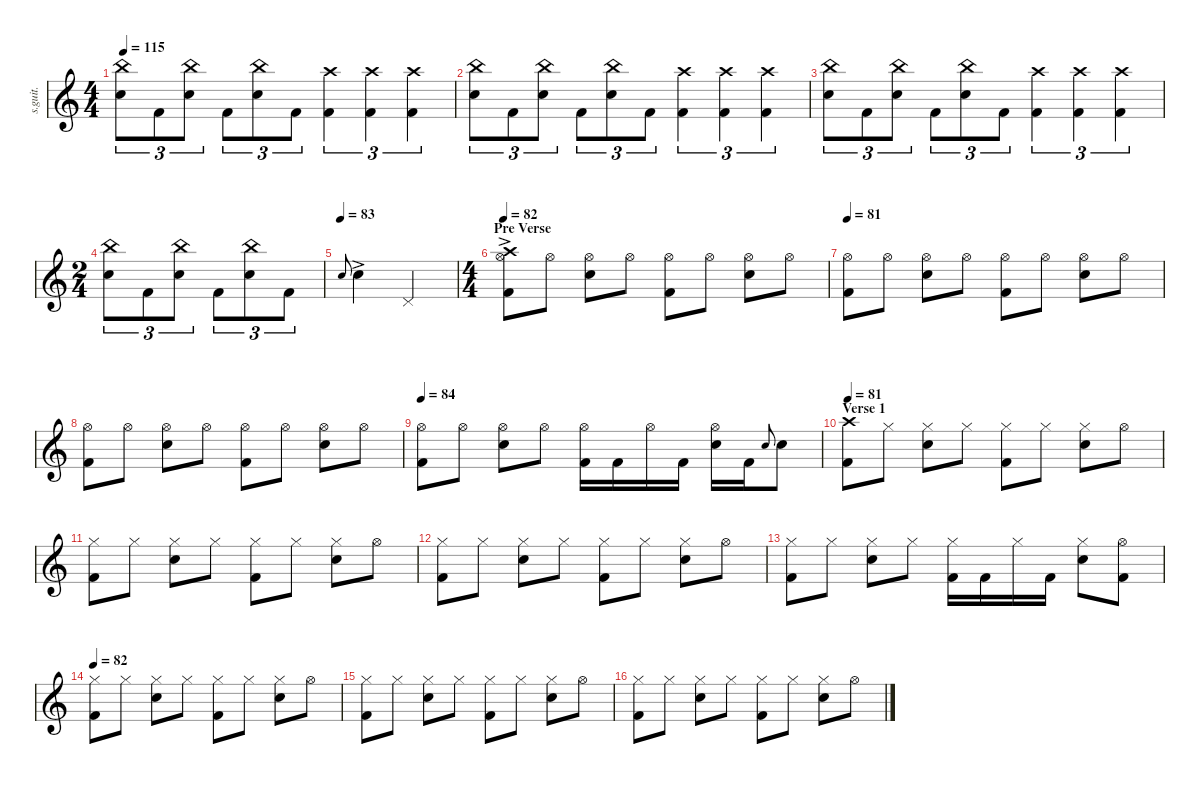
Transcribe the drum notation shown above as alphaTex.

\defaultSystemsLayout 4
\hideDynamics
\bracketExtendMode nobrackets
\track ("Brad Wilk - Drums" "s.guit.") {instrument percussion}
\staff {score}
\articulation defaults
\ts (4 4)
\tempo 115
\clef g2
\ks c
("Snare (hit) 2" "China (hit)").8{tu (3 2) lyrics (0 "") lyrics (1 "") lyrics (2 "") lyrics (3 "") lyrics (4 "") dy fff} "Kick (hit) 2".8{tu (3 2) lyrics (0 "") lyrics (1 "") lyrics (2 "") lyrics (3 "") lyrics (4 "")} ("Snare (hit) 2" "China (hit)").8{tu (3 2) lyrics (0 "") lyrics (1 "") lyrics (2 "") lyrics (3 "") lyrics (4 "")} "Kick (hit) 2".8{tu (3 2) lyrics (0 "") lyrics (1 "") lyrics (2 "") lyrics (3 "") lyrics (4 "")} ("Snare (hit) 2" "China (hit)").8{tu (3 2) lyrics (0 "") lyrics (1 "") lyrics (2 "") lyrics (3 "") lyrics (4 "")} "Kick (hit) 2".8{tu (3 2) lyrics (0 "") lyrics (1 "") lyrics (2 "") lyrics (3 "") lyrics (4 "")} ("Crash high (hit)" "Kick (hit) 2").4{tu (3 2) lyrics (0 "") lyrics (1 "") lyrics (2 "") lyrics (3 "") lyrics (4 "")} ("Crash high (hit)" "Kick (hit) 2").4{tu (3 2) lyrics (0 "") lyrics (1 "") lyrics (2 "") lyrics (3 "") lyrics (4 "")} ("Crash high (hit)" "Kick (hit) 2").4{tu (3 2) lyrics (0 "") lyrics (1 "") lyrics (2 "") lyrics (3 "") lyrics (4 "")} |
("Snare (hit) 2" "China (hit)").8{tu (3 2) lyrics (0 "") lyrics (1 "") lyrics (2 "") lyrics (3 "") lyrics (4 "")} "Kick (hit) 2".8{tu (3 2) lyrics (0 "") lyrics (1 "") lyrics (2 "") lyrics (3 "") lyrics (4 "")} ("Snare (hit) 2" "China (hit)").8{tu (3 2) lyrics (0 "") lyrics (1 "") lyrics (2 "") lyrics (3 "") lyrics (4 "")} "Kick (hit) 2".8{tu (3 2) lyrics (0 "") lyrics (1 "") lyrics (2 "") lyrics (3 "") lyrics (4 "")} ("Snare (hit) 2" "China (hit)").8{tu (3 2) lyrics (0 "") lyrics (1 "") lyrics (2 "") lyrics (3 "") lyrics (4 "")} "Kick (hit) 2".8{tu (3 2) lyrics (0 "") lyrics (1 "") lyrics (2 "") lyrics (3 "") lyrics (4 "")} ("Crash high (hit)" "Kick (hit) 2").4{tu (3 2) lyrics (0 "") lyrics (1 "") lyrics (2 "") lyrics (3 "") lyrics (4 "")} ("Crash high (hit)" "Kick (hit) 2").4{tu (3 2) lyrics (0 "") lyrics (1 "") lyrics (2 "") lyrics (3 "") lyrics (4 "")} ("Crash high (hit)" "Kick (hit) 2").4{tu (3 2) lyrics (0 "") lyrics (1 "") lyrics (2 "") lyrics (3 "") lyrics (4 "")} |
("Snare (hit) 2" "China (hit)").8{tu (3 2) lyrics (0 "") lyrics (1 "") lyrics (2 "") lyrics (3 "") lyrics (4 "")} "Kick (hit) 2".8{tu (3 2) lyrics (0 "") lyrics (1 "") lyrics (2 "") lyrics (3 "") lyrics (4 "")} ("Snare (hit) 2" "China (hit)").8{tu (3 2) lyrics (0 "") lyrics (1 "") lyrics (2 "") lyrics (3 "") lyrics (4 "")} "Kick (hit) 2".8{tu (3 2) lyrics (0 "") lyrics (1 "") lyrics (2 "") lyrics (3 "") lyrics (4 "")} ("Snare (hit) 2" "China (hit)").8{tu (3 2) lyrics (0 "") lyrics (1 "") lyrics (2 "") lyrics (3 "") lyrics (4 "")} "Kick (hit) 2".8{tu (3 2) lyrics (0 "") lyrics (1 "") lyrics (2 "") lyrics (3 "") lyrics (4 "")} ("Crash high (hit)" "Kick (hit) 2").4{tu (3 2) lyrics (0 "") lyrics (1 "") lyrics (2 "") lyrics (3 "") lyrics (4 "")} ("Crash high (hit)" "Kick (hit) 2").4{tu (3 2) lyrics (0 "") lyrics (1 "") lyrics (2 "") lyrics (3 "") lyrics (4 "")} ("Crash high (hit)" "Kick (hit) 2").4{tu (3 2) lyrics (0 "") lyrics (1 "") lyrics (2 "") lyrics (3 "") lyrics (4 "")} |
\ts (2 4)
\beaming (8 2 2 2 2)
("Snare (hit) 2" "China (hit)").8{tu (3 2) lyrics (0 "") lyrics (1 "") lyrics (2 "") lyrics (3 "") lyrics (4 "")} "Kick (hit) 2".8{tu (3 2) lyrics (0 "") lyrics (1 "") lyrics (2 "") lyrics (3 "") lyrics (4 "")} ("Snare (hit) 2" "China (hit)").8{tu (3 2) lyrics (0 "") lyrics (1 "") lyrics (2 "") lyrics (3 "") lyrics (4 "")} "Kick (hit) 2".8{tu (3 2) lyrics (0 "") lyrics (1 "") lyrics (2 "") lyrics (3 "") lyrics (4 "")} ("Snare (hit) 2" "China (hit)").8{tu (3 2) lyrics (0 "") lyrics (1 "") lyrics (2 "") lyrics (3 "") lyrics (4 "")} "Kick (hit) 2".8{tu (3 2) lyrics (0 "") lyrics (1 "") lyrics (2 "") lyrics (3 "") lyrics (4 "")} |
\tempo (83)
"Snare (hit) 2".8{lyrics (0 "") lyrics (1 "") lyrics (2 "") lyrics (3 "") lyrics (4 "") gr onbeat} "Snare (hit) 2"{ac}.4{lyrics (0 "") lyrics (1 "") lyrics (2 "") lyrics (3 "") lyrics (4 "")} "Pedal Hi-Hat (hit)".4{lyrics (0 "") lyrics (1 "") lyrics (2 "") lyrics (3 "") lyrics (4 "")} |
\ts (4 4)
\beaming (8 2 2 2 2)
\section ("" "Pre Verse")
\tempo 82
("Crash high (hit)"{ac} "Kick (hit) 2" "Hi-Hat (open)").8{lyrics (0 "") lyrics (1 "") lyrics (2 "") lyrics (3 "") lyrics (4 "")} "Hi-Hat (open)".8{lyrics (0 "") lyrics (1 "") lyrics (2 "") lyrics (3 "") lyrics (4 "")} ("Hi-Hat (open)" "Snare (hit) 2").8{lyrics (0 "") lyrics (1 "") lyrics (2 "") lyrics (3 "") lyrics (4 "")} "Hi-Hat (open)".8{lyrics (0 "") lyrics (1 "") lyrics (2 "") lyrics (3 "") lyrics (4 "")} ("Hi-Hat (open)" "Kick (hit) 2").8{lyrics (0 "") lyrics (1 "") lyrics (2 "") lyrics (3 "") lyrics (4 "")} "Hi-Hat (open)".8{lyrics (0 "") lyrics (1 "") lyrics (2 "") lyrics (3 "") lyrics (4 "")} ("Hi-Hat (open)" "Snare (hit) 2").8{lyrics (0 "") lyrics (1 "") lyrics (2 "") lyrics (3 "") lyrics (4 "")} "Hi-Hat (open)".8{lyrics (0 "") lyrics (1 "") lyrics (2 "") lyrics (3 "") lyrics (4 "")} |
\tempo 81
("Hi-Hat (open)" "Kick (hit) 2").8{lyrics (0 "") lyrics (1 "") lyrics (2 "") lyrics (3 "") lyrics (4 "")} "Hi-Hat (open)".8{lyrics (0 "") lyrics (1 "") lyrics (2 "") lyrics (3 "") lyrics (4 "")} ("Hi-Hat (open)" "Snare (hit) 2").8{lyrics (0 "") lyrics (1 "") lyrics (2 "") lyrics (3 "") lyrics (4 "")} "Hi-Hat (open)".8{lyrics (0 "") lyrics (1 "") lyrics (2 "") lyrics (3 "") lyrics (4 "")} ("Hi-Hat (open)" "Kick (hit) 2").8{lyrics (0 "") lyrics (1 "") lyrics (2 "") lyrics (3 "") lyrics (4 "")} "Hi-Hat (open)".8{lyrics (0 "") lyrics (1 "") lyrics (2 "") lyrics (3 "") lyrics (4 "")} ("Hi-Hat (open)" "Snare (hit) 2").8{lyrics (0 "") lyrics (1 "") lyrics (2 "") lyrics (3 "") lyrics (4 "")} "Hi-Hat (open)".8{lyrics (0 "") lyrics (1 "") lyrics (2 "") lyrics (3 "") lyrics (4 "")} |
("Hi-Hat (open)" "Kick (hit) 2").8{lyrics (0 "") lyrics (1 "") lyrics (2 "") lyrics (3 "") lyrics (4 "")} "Hi-Hat (open)".8{lyrics (0 "") lyrics (1 "") lyrics (2 "") lyrics (3 "") lyrics (4 "")} ("Hi-Hat (open)" "Snare (hit) 2").8{lyrics (0 "") lyrics (1 "") lyrics (2 "") lyrics (3 "") lyrics (4 "")} "Hi-Hat (open)".8{lyrics (0 "") lyrics (1 "") lyrics (2 "") lyrics (3 "") lyrics (4 "")} ("Hi-Hat (open)" "Kick (hit) 2").8{lyrics (0 "") lyrics (1 "") lyrics (2 "") lyrics (3 "") lyrics (4 "")} "Hi-Hat (open)".8{lyrics (0 "") lyrics (1 "") lyrics (2 "") lyrics (3 "") lyrics (4 "")} ("Hi-Hat (open)" "Snare (hit) 2").8{lyrics (0 "") lyrics (1 "") lyrics (2 "") lyrics (3 "") lyrics (4 "")} "Hi-Hat (open)".8{lyrics (0 "") lyrics (1 "") lyrics (2 "") lyrics (3 "") lyrics (4 "")} |
\tempo 84
("Hi-Hat (open)" "Kick (hit) 2").8{lyrics (0 "") lyrics (1 "") lyrics (2 "") lyrics (3 "") lyrics (4 "")} "Hi-Hat (open)".8{lyrics (0 "") lyrics (1 "") lyrics (2 "") lyrics (3 "") lyrics (4 "")} ("Hi-Hat (open)" "Snare (hit) 2").8{lyrics (0 "") lyrics (1 "") lyrics (2 "") lyrics (3 "") lyrics (4 "")} "Hi-Hat (open)".8{lyrics (0 "") lyrics (1 "") lyrics (2 "") lyrics (3 "") lyrics (4 "")} ("Hi-Hat (open)" "Kick (hit) 2").16{lyrics (0 "") lyrics (1 "") lyrics (2 "") lyrics (3 "") lyrics (4 "")} "Kick (hit) 2".16{lyrics (0 "") lyrics (1 "") lyrics (2 "") lyrics (3 "") lyrics (4 "")} "Hi-Hat (open)".16{lyrics (0 "") lyrics (1 "") lyrics (2 "") lyrics (3 "") lyrics (4 "")} "Kick (hit) 2".16{lyrics (0 "") lyrics (1 "") lyrics (2 "") lyrics (3 "") lyrics (4 "")} ("Hi-Hat (open)" "Snare (hit) 2").16{lyrics (0 "") lyrics (1 "") lyrics (2 "") lyrics (3 "") lyrics (4 "")} "Kick (hit) 2".16{lyrics (0 "") lyrics (1 "") lyrics (2 "") lyrics (3 "") lyrics (4 "")} "Snare (hit) 2".8{lyrics (0 "") lyrics (1 "") lyrics (2 "") lyrics (3 "") lyrics (4 "") gr onbeat} "Snare (hit) 2".8{lyrics (0 "") lyrics (1 "") lyrics (2 "") lyrics (3 "") lyrics (4 "")} |
\section ("" "Verse 1")
\tempo 81
("Crash high (hit)" "Kick (hit) 2").8{lyrics (0 "") lyrics (1 "") lyrics (2 "") lyrics (3 "") lyrics (4 "")} "Hi-Hat (closed)".8{lyrics (0 "") lyrics (1 "") lyrics (2 "") lyrics (3 "") lyrics (4 "")} ("Hi-Hat (closed)" "Snare (hit) 2").8{lyrics (0 "") lyrics (1 "") lyrics (2 "") lyrics (3 "") lyrics (4 "")} "Hi-Hat (closed)".8{lyrics (0 "") lyrics (1 "") lyrics (2 "") lyrics (3 "") lyrics (4 "")} ("Hi-Hat (closed)" "Kick (hit) 2").8{lyrics (0 "") lyrics (1 "") lyrics (2 "") lyrics (3 "") lyrics (4 "")} "Hi-Hat (closed)".8{lyrics (0 "") lyrics (1 "") lyrics (2 "") lyrics (3 "") lyrics (4 "")} ("Hi-Hat (closed)" "Snare (hit) 2").8{lyrics (0 "") lyrics (1 "") lyrics (2 "") lyrics (3 "") lyrics (4 "")} "Hi-Hat (open)".8{lyrics (0 "") lyrics (1 "") lyrics (2 "") lyrics (3 "") lyrics (4 "")} |
("Hi-Hat (closed)" "Kick (hit) 2").8{lyrics (0 "") lyrics (1 "") lyrics (2 "") lyrics (3 "") lyrics (4 "")} "Hi-Hat (closed)".8{lyrics (0 "") lyrics (1 "") lyrics (2 "") lyrics (3 "") lyrics (4 "")} ("Hi-Hat (closed)" "Snare (hit) 2").8{lyrics (0 "") lyrics (1 "") lyrics (2 "") lyrics (3 "") lyrics (4 "")} "Hi-Hat (closed)".8{lyrics (0 "") lyrics (1 "") lyrics (2 "") lyrics (3 "") lyrics (4 "")} ("Hi-Hat (closed)" "Kick (hit) 2").8{lyrics (0 "") lyrics (1 "") lyrics (2 "") lyrics (3 "") lyrics (4 "")} "Hi-Hat (closed)".8{lyrics (0 "") lyrics (1 "") lyrics (2 "") lyrics (3 "") lyrics (4 "")} ("Hi-Hat (closed)" "Snare (hit) 2").8{lyrics (0 "") lyrics (1 "") lyrics (2 "") lyrics (3 "") lyrics (4 "")} "Hi-Hat (open)".8{lyrics (0 "") lyrics (1 "") lyrics (2 "") lyrics (3 "") lyrics (4 "")} |
("Hi-Hat (closed)" "Kick (hit) 2").8{lyrics (0 "") lyrics (1 "") lyrics (2 "") lyrics (3 "") lyrics (4 "")} "Hi-Hat (closed)".8{lyrics (0 "") lyrics (1 "") lyrics (2 "") lyrics (3 "") lyrics (4 "")} ("Hi-Hat (closed)" "Snare (hit) 2").8{lyrics (0 "") lyrics (1 "") lyrics (2 "") lyrics (3 "") lyrics (4 "")} "Hi-Hat (closed)".8{lyrics (0 "") lyrics (1 "") lyrics (2 "") lyrics (3 "") lyrics (4 "")} ("Hi-Hat (closed)" "Kick (hit) 2").8{lyrics (0 "") lyrics (1 "") lyrics (2 "") lyrics (3 "") lyrics (4 "")} "Hi-Hat (closed)".8{lyrics (0 "") lyrics (1 "") lyrics (2 "") lyrics (3 "") lyrics (4 "")} ("Hi-Hat (closed)" "Snare (hit) 2").8{lyrics (0 "") lyrics (1 "") lyrics (2 "") lyrics (3 "") lyrics (4 "")} "Hi-Hat (open)".8{lyrics (0 "") lyrics (1 "") lyrics (2 "") lyrics (3 "") lyrics (4 "")} |
("Hi-Hat (closed)" "Kick (hit) 2").8{lyrics (0 "") lyrics (1 "") lyrics (2 "") lyrics (3 "") lyrics (4 "")} "Hi-Hat (closed)".8{lyrics (0 "") lyrics (1 "") lyrics (2 "") lyrics (3 "") lyrics (4 "")} ("Hi-Hat (closed)" "Snare (hit) 2").8{lyrics (0 "") lyrics (1 "") lyrics (2 "") lyrics (3 "") lyrics (4 "")} "Hi-Hat (closed)".8{lyrics (0 "") lyrics (1 "") lyrics (2 "") lyrics (3 "") lyrics (4 "")} ("Hi-Hat (closed)" "Kick (hit) 2").16{lyrics (0 "") lyrics (1 "") lyrics (2 "") lyrics (3 "") lyrics (4 "")} "Kick (hit) 2".16{lyrics (0 "") lyrics (1 "") lyrics (2 "") lyrics (3 "") lyrics (4 "")} "Hi-Hat (closed)".16{lyrics (0 "") lyrics (1 "") lyrics (2 "") lyrics (3 "") lyrics (4 "")} "Kick (hit) 2".16{lyrics (0 "") lyrics (1 "") lyrics (2 "") lyrics (3 "") lyrics (4 "")} ("Hi-Hat (closed)" "Snare (hit) 2").8{lyrics (0 "") lyrics (1 "") lyrics (2 "") lyrics (3 "") lyrics (4 "")} ("Hi-Hat (open)" "Kick (hit) 2").8{lyrics (0 "") lyrics (1 "") lyrics (2 "") lyrics (3 "") lyrics (4 "")} |
\tempo 82
("Hi-Hat (closed)" "Kick (hit) 2").8{lyrics (0 "") lyrics (1 "") lyrics (2 "") lyrics (3 "") lyrics (4 "")} "Hi-Hat (closed)".8{lyrics (0 "") lyrics (1 "") lyrics (2 "") lyrics (3 "") lyrics (4 "")} ("Hi-Hat (closed)" "Snare (hit) 2").8{lyrics (0 "") lyrics (1 "") lyrics (2 "") lyrics (3 "") lyrics (4 "")} "Hi-Hat (closed)".8{lyrics (0 "") lyrics (1 "") lyrics (2 "") lyrics (3 "") lyrics (4 "")} ("Hi-Hat (closed)" "Kick (hit) 2").8{lyrics (0 "") lyrics (1 "") lyrics (2 "") lyrics (3 "") lyrics (4 "")} "Hi-Hat (closed)".8{lyrics (0 "") lyrics (1 "") lyrics (2 "") lyrics (3 "") lyrics (4 "")} ("Hi-Hat (closed)" "Snare (hit) 2").8{lyrics (0 "") lyrics (1 "") lyrics (2 "") lyrics (3 "") lyrics (4 "")} "Hi-Hat (open)".8{lyrics (0 "") lyrics (1 "") lyrics (2 "") lyrics (3 "") lyrics (4 "")} |
("Hi-Hat (closed)" "Kick (hit) 2").8{lyrics (0 "") lyrics (1 "") lyrics (2 "") lyrics (3 "") lyrics (4 "")} "Hi-Hat (closed)".8{lyrics (0 "") lyrics (1 "") lyrics (2 "") lyrics (3 "") lyrics (4 "")} ("Hi-Hat (closed)" "Snare (hit) 2").8{lyrics (0 "") lyrics (1 "") lyrics (2 "") lyrics (3 "") lyrics (4 "")} "Hi-Hat (closed)".8{lyrics (0 "") lyrics (1 "") lyrics (2 "") lyrics (3 "") lyrics (4 "")} ("Hi-Hat (closed)" "Kick (hit) 2").8{lyrics (0 "") lyrics (1 "") lyrics (2 "") lyrics (3 "") lyrics (4 "")} "Hi-Hat (closed)".8{lyrics (0 "") lyrics (1 "") lyrics (2 "") lyrics (3 "") lyrics (4 "")} ("Hi-Hat (closed)" "Snare (hit) 2").8{lyrics (0 "") lyrics (1 "") lyrics (2 "") lyrics (3 "") lyrics (4 "")} "Hi-Hat (open)".8{lyrics (0 "") lyrics (1 "") lyrics (2 "") lyrics (3 "") lyrics (4 "")} |
("Hi-Hat (closed)" "Kick (hit) 2").8{lyrics (0 "") lyrics (1 "") lyrics (2 "") lyrics (3 "") lyrics (4 "")} "Hi-Hat (closed)".8{lyrics (0 "") lyrics (1 "") lyrics (2 "") lyrics (3 "") lyrics (4 "")} ("Hi-Hat (closed)" "Snare (hit) 2").8{lyrics (0 "") lyrics (1 "") lyrics (2 "") lyrics (3 "") lyrics (4 "")} "Hi-Hat (closed)".8{lyrics (0 "") lyrics (1 "") lyrics (2 "") lyrics (3 "") lyrics (4 "")} ("Hi-Hat (closed)" "Kick (hit) 2").8{lyrics (0 "") lyrics (1 "") lyrics (2 "") lyrics (3 "") lyrics (4 "")} "Hi-Hat (closed)".8{lyrics (0 "") lyrics (1 "") lyrics (2 "") lyrics (3 "") lyrics (4 "")} ("Hi-Hat (closed)" "Snare (hit) 2").8{lyrics (0 "") lyrics (1 "") lyrics (2 "") lyrics (3 "") lyrics (4 "")} "Hi-Hat (open)".8{lyrics (0 "") lyrics (1 "") lyrics (2 "") lyrics (3 "") lyrics (4 "")}
